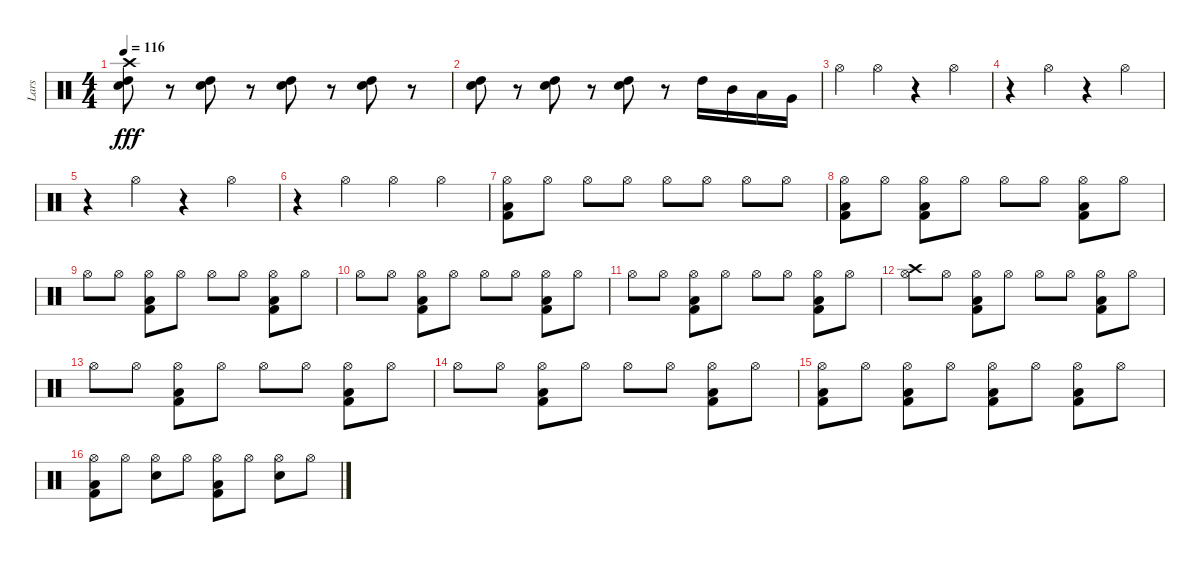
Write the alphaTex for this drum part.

\track ("Lars" "Lars") {instrument percussion}
\staff {score}
\articulation defaults
\ts (4 4)
\tempo 116
\clef neutral
\ks c
("Crash high (hit)" "High Tom (hit)" "Electric Snare (hit)").8{dy fff} r.8 ("High Tom (hit)" "Electric Snare (hit)").8 r.8 ("High Tom (hit)" "Electric Snare (hit)").8 r.8 ("High Tom (hit)" "Electric Snare (hit)").8 r.8 |
("High Tom (hit)" "Electric Snare (hit)").8 r.8 ("High Tom (hit)" "Electric Snare (hit)").8 r.8 ("High Tom (hit)" "Electric Snare (hit)").8 r.8 "High Tom (hit)".16 "Mid Tom (hit)".16 "Low Tom (hit)".16 "Very Low Tom (hit)".16 |
"Hi-Hat (open)".4 "Hi-Hat (open)".4 r.4 "Hi-Hat (open)".4 |
r.4 "Hi-Hat (open)".4 r.4 "Hi-Hat (open)".4 |
r.4 "Hi-Hat (open)".4 r.4 "Hi-Hat (open)".4 |
r.4 "Hi-Hat (open)".4 "Hi-Hat (open)".4 "Hi-Hat (open)".4 |
("Low Floor Tom (hit)" "Hi-Hat (open)" "Kick (hit) 2").8 "Hi-Hat (open)".8 "Hi-Hat (open)".8 "Hi-Hat (open)".8 "Hi-Hat (open)".8 "Hi-Hat (open)".8 "Hi-Hat (open)".8 "Hi-Hat (open)".8 |
("Low Floor Tom (hit)" "Hi-Hat (open)" "Kick (hit) 2").8 "Hi-Hat (open)".8 ("Low Floor Tom (hit)" "Hi-Hat (open)" "Kick (hit) 2").8 "Hi-Hat (open)".8 "Hi-Hat (open)".8 "Hi-Hat (open)".8 ("Low Floor Tom (hit)" "Hi-Hat (open)" "Kick (hit) 2").8 "Hi-Hat (open)".8 |
"Hi-Hat (open)".8 "Hi-Hat (open)".8 ("Low Floor Tom (hit)" "Hi-Hat (open)" "Kick (hit) 2").8 "Hi-Hat (open)".8 "Hi-Hat (open)".8 "Hi-Hat (open)".8 ("Low Floor Tom (hit)" "Hi-Hat (open)" "Kick (hit) 2").8 "Hi-Hat (open)".8 |
"Hi-Hat (open)".8 "Hi-Hat (open)".8 ("Low Floor Tom (hit)" "Hi-Hat (open)" "Kick (hit) 2").8 "Hi-Hat (open)".8 "Hi-Hat (open)".8 "Hi-Hat (open)".8 ("Low Floor Tom (hit)" "Hi-Hat (open)" "Kick (hit) 2").8 "Hi-Hat (open)".8 |
"Hi-Hat (open)".8 "Hi-Hat (open)".8 ("Low Floor Tom (hit)" "Hi-Hat (open)" "Kick (hit) 2").8 "Hi-Hat (open)".8 "Hi-Hat (open)".8 "Hi-Hat (open)".8 ("Low Floor Tom (hit)" "Hi-Hat (open)" "Kick (hit) 2").8 "Hi-Hat (open)".8 |
("Crash high (hit)" "Hi-Hat (open)").8 "Hi-Hat (open)".8 ("Low Floor Tom (hit)" "Hi-Hat (open)" "Kick (hit) 2").8 "Hi-Hat (open)".8 "Hi-Hat (open)".8 "Hi-Hat (open)".8 ("Low Floor Tom (hit)" "Hi-Hat (open)" "Kick (hit) 2").8 "Hi-Hat (open)".8 |
"Hi-Hat (open)".8 "Hi-Hat (open)".8 ("Low Floor Tom (hit)" "Hi-Hat (open)" "Kick (hit) 2").8 "Hi-Hat (open)".8 "Hi-Hat (open)".8 "Hi-Hat (open)".8 ("Low Floor Tom (hit)" "Hi-Hat (open)" "Kick (hit) 2").8 "Hi-Hat (open)".8 |
"Hi-Hat (open)".8 "Hi-Hat (open)".8 ("Low Floor Tom (hit)" "Hi-Hat (open)" "Kick (hit) 2").8 "Hi-Hat (open)".8 "Hi-Hat (open)".8 "Hi-Hat (open)".8 ("Low Floor Tom (hit)" "Hi-Hat (open)" "Kick (hit) 2").8 "Hi-Hat (open)".8 |
("Low Floor Tom (hit)" "Hi-Hat (open)" "Kick (hit) 2").8 "Hi-Hat (open)".8 ("Low Floor Tom (hit)" "Hi-Hat (open)" "Kick (hit) 2").8 "Hi-Hat (open)".8 ("Low Floor Tom (hit)" "Hi-Hat (open)" "Kick (hit) 2").8 "Hi-Hat (open)".8 ("Low Floor Tom (hit)" "Hi-Hat (open)" "Kick (hit) 2").8 "Hi-Hat (open)".8 |
("Low Floor Tom (hit)" "Hi-Hat (open)" "Kick (hit) 2").8 "Hi-Hat (open)".8 ("Hi-Hat (open)" "Electric Snare (hit)").8 "Hi-Hat (open)".8 ("Low Floor Tom (hit)" "Hi-Hat (open)" "Kick (hit) 2").8 "Hi-Hat (open)".8 ("Hi-Hat (open)" "Electric Snare (hit)").8 "Hi-Hat (open)".8
